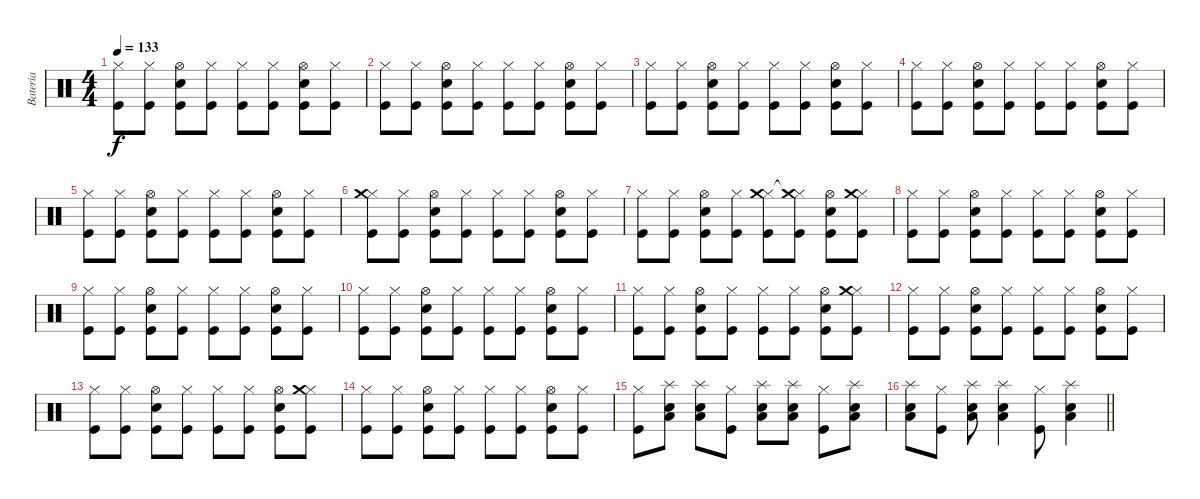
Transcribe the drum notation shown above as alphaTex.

\track ("Bateria" "Bateria") {instrument percussion}
\staff
\articulation defaults
\ts (4 4)
\tempo 133
\clef neutral
\ks c
("Hi-Hat (closed)" "Kick (hit)").8{dy f} ("Hi-Hat (closed)" "Kick (hit)").8 ("Hi-Hat (open)" "Kick (hit)" "Snare (hit) 2").8 ("Hi-Hat (closed)" "Kick (hit)").8 ("Hi-Hat (closed)" "Kick (hit)").8 ("Hi-Hat (closed)" "Kick (hit)").8 ("Hi-Hat (open)" "Kick (hit)" "Snare (hit) 2").8 ("Hi-Hat (closed)" "Kick (hit)").8 |
("Hi-Hat (closed)" "Kick (hit)").8 ("Hi-Hat (closed)" "Kick (hit)").8 ("Hi-Hat (open)" "Kick (hit)" "Snare (hit) 2").8 ("Hi-Hat (closed)" "Kick (hit)").8 ("Hi-Hat (closed)" "Kick (hit)").8 ("Hi-Hat (closed)" "Kick (hit)").8 ("Hi-Hat (open)" "Kick (hit)" "Snare (hit) 2").8 ("Hi-Hat (closed)" "Kick (hit)").8 |
("Hi-Hat (closed)" "Kick (hit)").8 ("Hi-Hat (closed)" "Kick (hit)").8 ("Hi-Hat (open)" "Kick (hit)" "Snare (hit) 2").8 ("Hi-Hat (closed)" "Kick (hit)").8 ("Hi-Hat (closed)" "Kick (hit)").8 ("Hi-Hat (closed)" "Kick (hit)").8 ("Hi-Hat (open)" "Kick (hit)" "Snare (hit) 2").8 ("Hi-Hat (closed)" "Kick (hit)").8 |
("Hi-Hat (closed)" "Kick (hit)").8 ("Hi-Hat (closed)" "Kick (hit)").8 ("Hi-Hat (open)" "Kick (hit)" "Snare (hit) 2").8 ("Hi-Hat (closed)" "Kick (hit)").8 ("Hi-Hat (closed)" "Kick (hit)").8 ("Hi-Hat (closed)" "Kick (hit)").8 ("Hi-Hat (open)" "Kick (hit)" "Snare (hit) 2").8 ("Hi-Hat (closed)" "Kick (hit)").8 |
("Hi-Hat (closed)" "Kick (hit)").8 ("Hi-Hat (closed)" "Kick (hit)").8 ("Hi-Hat (open)" "Kick (hit)" "Snare (hit) 2").8 ("Hi-Hat (closed)" "Kick (hit)").8 ("Hi-Hat (closed)" "Kick (hit)").8 ("Hi-Hat (closed)" "Kick (hit)").8 ("Hi-Hat (open)" "Kick (hit)" "Snare (hit) 2").8 ("Hi-Hat (closed)" "Kick (hit)").8 |
("Hi-Hat (closed)" "Kick (hit)" "Crash medium (hit)").8 ("Hi-Hat (closed)" "Kick (hit)").8 ("Hi-Hat (open)" "Kick (hit)" "Snare (hit) 2").8 ("Hi-Hat (closed)" "Kick (hit)").8 ("Hi-Hat (closed)" "Kick (hit)").8 ("Hi-Hat (closed)" "Kick (hit)").8 ("Hi-Hat (open)" "Kick (hit)" "Snare (hit) 2").8 ("Hi-Hat (closed)" "Kick (hit)").8 |
("Hi-Hat (closed)" "Kick (hit)").8 ("Hi-Hat (closed)" "Kick (hit)").8 ("Hi-Hat (open)" "Kick (hit)" "Snare (hit) 2").8 ("Hi-Hat (closed)" "Kick (hit)").8 ("Hi-Hat (closed)" "Kick (hit)" "Crash medium (hit)").8 ("Hi-Hat (closed)" "Kick (hit)" "Crash medium (hit)"{t}).8 ("Hi-Hat (open)" "Kick (hit)" "Snare (hit) 2").8 ("Hi-Hat (closed)" "Kick (hit)" "Crash medium (hit)").8 |
("Hi-Hat (closed)" "Kick (hit)").8 ("Hi-Hat (closed)" "Kick (hit)").8 ("Hi-Hat (open)" "Kick (hit)" "Snare (hit) 2").8 ("Hi-Hat (closed)" "Kick (hit)").8 ("Hi-Hat (closed)" "Kick (hit)").8 ("Hi-Hat (closed)" "Kick (hit)").8 ("Hi-Hat (open)" "Kick (hit)" "Snare (hit) 2").8 ("Hi-Hat (closed)" "Kick (hit)").8 |
("Hi-Hat (closed)" "Kick (hit)").8 ("Hi-Hat (closed)" "Kick (hit)").8 ("Hi-Hat (open)" "Kick (hit)" "Snare (hit) 2").8 ("Hi-Hat (closed)" "Kick (hit)").8 ("Hi-Hat (closed)" "Kick (hit)").8 ("Hi-Hat (closed)" "Kick (hit)").8 ("Hi-Hat (open)" "Kick (hit)" "Snare (hit) 2").8 ("Hi-Hat (closed)" "Kick (hit)").8 |
("Hi-Hat (closed)" "Kick (hit)").8 ("Hi-Hat (closed)" "Kick (hit)").8 ("Hi-Hat (open)" "Kick (hit)" "Snare (hit) 2").8 ("Hi-Hat (closed)" "Kick (hit)").8 ("Hi-Hat (closed)" "Kick (hit)").8 ("Hi-Hat (closed)" "Kick (hit)").8 ("Hi-Hat (open)" "Kick (hit)" "Snare (hit) 2").8 ("Hi-Hat (closed)" "Kick (hit)").8 |
("Hi-Hat (closed)" "Kick (hit)").8 ("Hi-Hat (closed)" "Kick (hit)").8 ("Hi-Hat (open)" "Kick (hit)" "Snare (hit) 2").8 ("Hi-Hat (closed)" "Kick (hit)").8 ("Hi-Hat (closed)" "Kick (hit)").8 ("Hi-Hat (closed)" "Kick (hit)").8 ("Hi-Hat (open)" "Kick (hit)" "Snare (hit) 2").8 ("Hi-Hat (closed)" "Kick (hit)" "Crash medium (hit)").8 |
("Hi-Hat (closed)" "Kick (hit)").8 ("Hi-Hat (closed)" "Kick (hit)").8 ("Hi-Hat (open)" "Kick (hit)" "Snare (hit) 2").8 ("Hi-Hat (closed)" "Kick (hit)").8 ("Hi-Hat (closed)" "Kick (hit)").8 ("Hi-Hat (closed)" "Kick (hit)").8 ("Hi-Hat (open)" "Kick (hit)" "Snare (hit) 2").8 ("Hi-Hat (closed)" "Kick (hit)").8 |
("Hi-Hat (closed)" "Kick (hit)").8 ("Hi-Hat (closed)" "Kick (hit)").8 ("Hi-Hat (open)" "Kick (hit)" "Snare (hit) 2").8 ("Hi-Hat (closed)" "Kick (hit)").8 ("Hi-Hat (closed)" "Kick (hit)").8 ("Hi-Hat (closed)" "Kick (hit)").8 ("Hi-Hat (open)" "Kick (hit)" "Snare (hit) 2").8 ("Hi-Hat (closed)" "Kick (hit)" "Crash medium (hit)").8 |
("Hi-Hat (closed)" "Kick (hit)").8 ("Hi-Hat (closed)" "Kick (hit)").8 ("Hi-Hat (open)" "Kick (hit)" "Snare (hit) 2").8 ("Hi-Hat (closed)" "Kick (hit)").8 ("Hi-Hat (closed)" "Kick (hit)").8 ("Hi-Hat (closed)" "Kick (hit)").8 ("Hi-Hat (open)" "Kick (hit)" "Snare (hit) 2").8 ("Hi-Hat (closed)" "Kick (hit)").8 |
("Hi-Hat (closed)" "Kick (hit)").8 ("Low Floor Tom (hit)" "Electric Snare (hit)" "Splash (hit)").8 ("Low Floor Tom (hit)" "Electric Snare (hit)" "Splash (hit)").8 ("Hi-Hat (closed)" "Kick (hit)").8 ("Low Floor Tom (hit)" "Electric Snare (hit)" "Splash (hit)").8 ("Low Floor Tom (hit)" "Electric Snare (hit)" "Splash (hit)").8 ("Hi-Hat (closed)" "Kick (hit)").8 ("Low Floor Tom (hit)" "Electric Snare (hit)" "Splash (hit)").8 |
\barLineRight lightlight
("Low Floor Tom (hit)" "Electric Snare (hit)" "Splash (hit)").8 ("Hi-Hat (closed)" "Kick (hit)").8 ("Low Floor Tom (hit)" "Electric Snare (hit)" "Splash (hit)").8 ("Low Floor Tom (hit)" "Electric Snare (hit)" "Splash (hit)").4 ("Hi-Hat (closed)" "Kick (hit)").8 ("Low Floor Tom (hit)" "Electric Snare (hit)" "Splash (hit)").4
